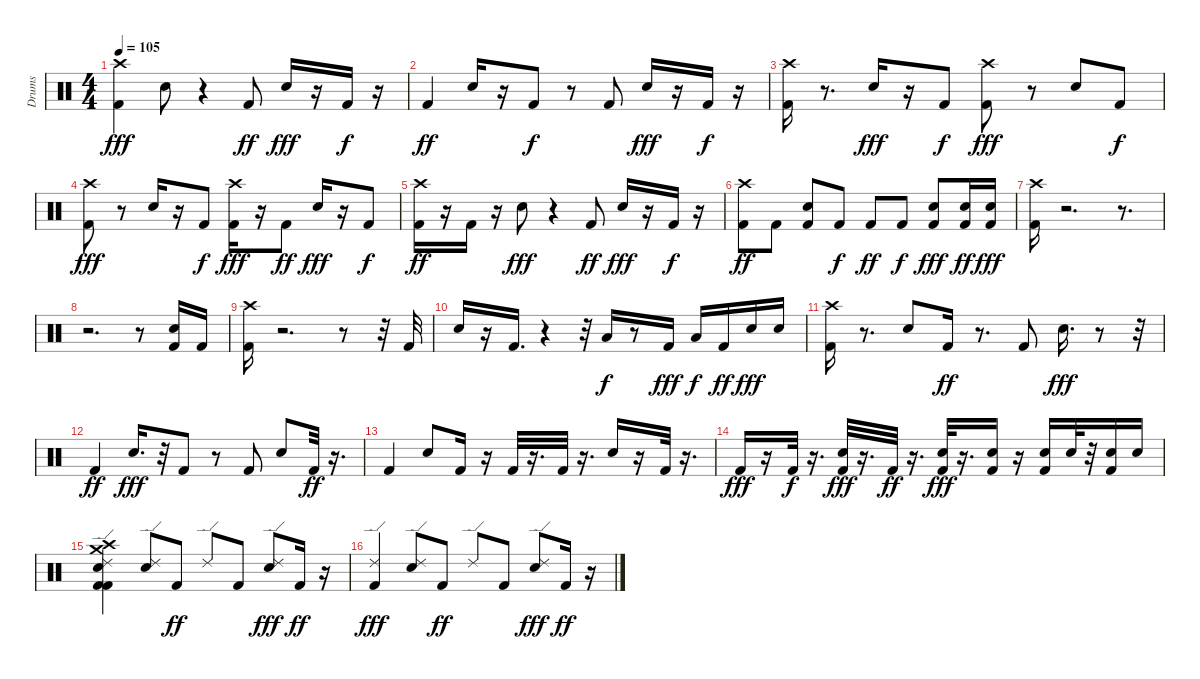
\track ("Drums" "Drums") {instrument percussion}
\staff {score}
\articulation defaults
\ts (4 4)
\tempo 105
\clef neutral
\ks c
("Crash high (hit)" "Kick (hit) 2").4{dy fff} "Snare (hit) 2".8 r.4 "Kick (hit) 2".8{dy ff} "Snare (hit) 2".16{dy fff} r.16 "Kick (hit) 2".16{dy f} r.16 |
"Kick (hit) 2".4{dy ff} "Snare (hit) 2".16 r.16 "Kick (hit) 2".8{dy f} r.8 "Kick (hit) 2".8 "Snare (hit) 2".16{dy fff} r.16 "Kick (hit) 2".16{dy f} r.16 |
("Crash high (hit)" "Kick (hit) 2").16 r.8{d} "Snare (hit) 2".16{dy fff} r.16 "Kick (hit) 2".8{dy f} ("Kick (hit) 2" "Crash high (hit)").8{dy fff} r.8 "Snare (hit) 2".8 "Kick (hit) 2".8{dy f} |
("Kick (hit) 2" "Crash high (hit)").8{dy fff} r.8 "Snare (hit) 2".16 r.16 "Kick (hit) 2".8{dy f} ("Kick (hit) 2" "Crash high (hit)").16{dy fff} r.16 "Kick (hit) 2".8{dy ff} "Snare (hit) 2".16{dy fff} r.16 "Kick (hit) 2".8{dy f} |
("Crash high (hit)" "Kick (hit) 2").16{dy ff} r.16 "Kick (hit) 2".16 r.16 "Snare (hit) 2".8{dy fff} r.4 "Kick (hit) 2".8{dy ff} "Snare (hit) 2".16{dy fff} r.16 "Kick (hit) 2".16{dy f} r.16 |
("Kick (hit) 2" "Crash high (hit)").8{dy ff} "Kick (hit) 2".8 ("Kick (hit) 2" "Snare (hit) 2").8 "Kick (hit) 2".8{dy f} "Kick (hit) 2".8{dy ff} "Kick (hit) 2".8{dy f} ("Kick (hit) 2" "Snare (hit) 2").8{dy fff} ("Snare (hit) 2" "Kick (hit) 2").16{dy ff} ("Snare (hit) 2" "Kick (hit) 2").16{dy fff} |
("Kick (hit) 2" "Crash high (hit)").16 r.2{d} r.8{d} |
r.2{d} r.8 ("Snare (hit) 2" "Kick (hit) 2").16 "Kick (hit) 2".16 |
("Crash high (hit)" "Kick (hit) 2").16 r.2{d} r.8 r.32 "Kick (hit) 2".32 |
"Snare (hit) 2".16 r.16 "Kick (hit) 2".16{d} r.4 r.32 "Low Floor Tom (hit)".16{dy f} r.8 "Kick (hit) 2".16{dy fff} "Low Floor Tom (hit)".16{dy f} "Kick (hit) 2".16{dy ff} "Snare (hit) 2".16{dy fff} "Snare (hit) 2".16 |
("Crash high (hit)" "Kick (hit) 2").16 r.8{d} "Snare (hit) 2".8 "Kick (hit) 2".16{dy ff} r.8{d} "Kick (hit) 2".8 "Snare (hit) 2".16{d dy fff} r.8 r.32 |
"Kick (hit) 2".4{dy ff} "Snare (hit) 2".16{d dy fff} r.32 "Kick (hit) 2".8 r.8 "Kick (hit) 2".8 "Snare (hit) 2".8 "Kick (hit) 2".32{dy ff} r.16{d} |
"Kick (hit) 2".4 "Snare (hit) 2".8 "Kick (hit) 2".16 r.16 "Kick (hit) 2".32 r.16{d} "Kick (hit) 2".32 r.16{d} "Snare (hit) 2".16 r.16 "Kick (hit) 2".32 r.16{d} |
"Kick (hit) 2".16{dy fff} r.16 "Kick (hit) 2".32{dy f} r.16{d} ("Kick (hit) 2" "Snare (hit) 2").32{dy fff} r.16{d} "Kick (hit) 2".32{dy ff} r.16{d} ("Snare (hit) 2" "Kick (hit) 2").32{dy fff} r.16{d} ("Snare (hit) 2" "Kick (hit) 2").16 r.16 ("Kick (hit) 2" "Snare (hit) 2").16 "Snare (hit) 2".32 r.32 ("Snare (hit) 2" "Kick (hit) 2").16 "Snare (hit) 2".16 |
("Kick (hit) 2" "Crash medium (hit)" "Crash high (hit)" "Ride (edge) 2" "Kick (hit) 2" "Snare (hit) 2").4 ("Ride (edge) 2" "Snare (hit) 2").8 "Kick (hit) 2".8{dy ff} "Ride (edge) 2".8 "Kick (hit) 2".8 ("Ride (edge) 2" "Snare (hit) 2").8{dy fff} "Kick (hit) 2".16{dy ff} r.16 |
("Ride (edge) 2" "Kick (hit) 2").4{dy fff} ("Ride (edge) 2" "Snare (hit) 2").8 "Kick (hit) 2".8{dy ff} "Ride (edge) 2".8 "Kick (hit) 2".8 ("Ride (edge) 2" "Snare (hit) 2").8{dy fff} "Kick (hit) 2".16{dy ff} r.16
